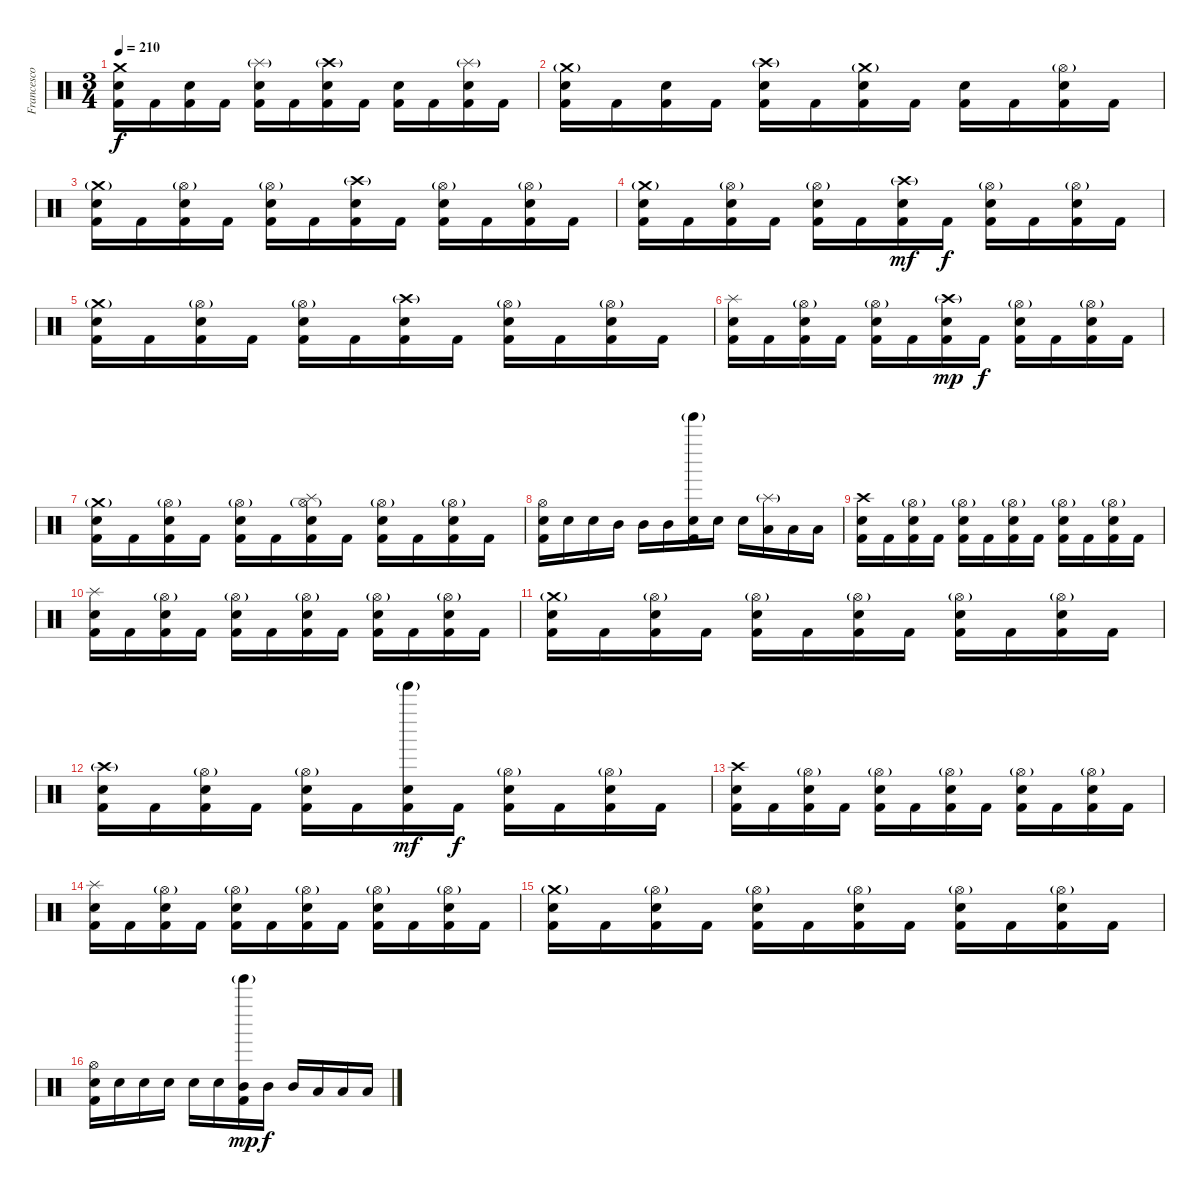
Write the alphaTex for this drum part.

\track ("Francesco Ferrini" "Francesco ") {instrument percussion}
\staff {score}
\articulation defaults
\ts (3 4)
\tempo 210
\clef neutral
\ks c
("Crash medium (hit)" "Electric Snare (hit)" "Kick (hit) 2").16{dy f} "Kick (hit) 2".16 ("Electric Snare (hit)" "Kick (hit) 2").16 "Kick (hit) 2".16 ("Splash (hit)"{g} "Electric Snare (hit)" "Kick (hit) 2").16 "Kick (hit) 2".16 ("Crash high (hit)"{g} "Electric Snare (hit)" "Kick (hit) 2").16 "Kick (hit) 2".16 ("Electric Snare (hit)" "Kick (hit) 2").16 "Kick (hit) 2".16 ("Splash (hit)"{g} "Electric Snare (hit)" "Kick (hit) 2").16 "Kick (hit) 2".16 |
("Crash medium (hit)"{g} "Electric Snare (hit)" "Kick (hit) 2").16 "Kick (hit) 2".16 ("Electric Snare (hit)" "Kick (hit) 2").16 "Kick (hit) 2".16 ("Crash high (hit)"{g} "Electric Snare (hit)" "Kick (hit) 2").16 "Kick (hit) 2".16 ("Crash medium (hit)"{g} "Electric Snare (hit)" "Kick (hit) 2").16 "Kick (hit) 2".16 ("Electric Snare (hit)" "Kick (hit) 2").16 "Kick (hit) 2".16 ("Hi-Hat (open)"{g} "Electric Snare (hit)" "Kick (hit) 2").16 "Kick (hit) 2".16 |
("Crash medium (hit)"{g} "Electric Snare (hit)" "Kick (hit) 2").16 "Kick (hit) 2".16 ("Hi-Hat (open)"{g} "Electric Snare (hit)" "Kick (hit) 2").16 "Kick (hit) 2".16 ("Hi-Hat (open)"{g} "Electric Snare (hit)" "Kick (hit) 2").16 "Kick (hit) 2".16 ("Crash high (hit)"{g} "Electric Snare (hit)" "Kick (hit) 2").16 "Kick (hit) 2".16 ("Hi-Hat (open)"{g} "Electric Snare (hit)" "Kick (hit) 2").16 "Kick (hit) 2".16 ("Hi-Hat (open)"{g} "Electric Snare (hit)" "Kick (hit) 2").16 "Kick (hit) 2".16 |
("Crash medium (hit)"{g} "Electric Snare (hit)" "Kick (hit) 2").16 "Kick (hit) 2".16 ("Hi-Hat (open)"{g} "Electric Snare (hit)" "Kick (hit) 2").16 "Kick (hit) 2".16 ("Hi-Hat (open)"{g} "Electric Snare (hit)" "Kick (hit) 2").16 "Kick (hit) 2".16 ("Crash high (hit)"{g} "Electric Snare (hit)" "Kick (hit) 2").16{dy mf} "Kick (hit) 2".16{dy f} ("Hi-Hat (open)"{g} "Electric Snare (hit)" "Kick (hit) 2").16 "Kick (hit) 2".16 ("Hi-Hat (open)"{g} "Electric Snare (hit)" "Kick (hit) 2").16 "Kick (hit) 2".16 |
("Crash medium (hit)"{g} "Electric Snare (hit)" "Kick (hit) 2").16 "Kick (hit) 2".16 ("Hi-Hat (open)"{g} "Electric Snare (hit)" "Kick (hit) 2").16 "Kick (hit) 2".16 ("Hi-Hat (open)"{g} "Electric Snare (hit)" "Kick (hit) 2").16 "Kick (hit) 2".16 ("Crash high (hit)"{g} "Electric Snare (hit)" "Kick (hit) 2").16 "Kick (hit) 2".16 ("Hi-Hat (open)"{g} "Electric Snare (hit)" "Kick (hit) 2").16 "Kick (hit) 2".16 ("Hi-Hat (open)"{g} "Electric Snare (hit)" "Kick (hit) 2").16 "Kick (hit) 2".16 |
("Splash (hit)" "Electric Snare (hit)" "Kick (hit) 2").16 "Kick (hit) 2".16 ("Hi-Hat (open)"{g} "Electric Snare (hit)" "Kick (hit) 2").16 "Kick (hit) 2".16 ("Hi-Hat (open)"{g} "Electric Snare (hit)" "Kick (hit) 2").16 "Kick (hit) 2".16 ("Crash high (hit)"{g} "Electric Snare (hit)" "Kick (hit) 2").16{dy mp} "Kick (hit) 2".16{dy f} ("Hi-Hat (open)"{g} "Electric Snare (hit)" "Kick (hit) 2").16 "Kick (hit) 2".16 ("Hi-Hat (open)"{g} "Electric Snare (hit)" "Kick (hit) 2").16 "Kick (hit) 2".16 |
("Crash medium (hit)"{g} "Electric Snare (hit)" "Kick (hit) 2").16 "Kick (hit) 2".16 ("Hi-Hat (open)"{g} "Electric Snare (hit)" "Kick (hit) 2").16 "Kick (hit) 2".16 ("Hi-Hat (open)"{g} "Electric Snare (hit)" "Kick (hit) 2").16 "Kick (hit) 2".16 ("Splash (hit)" "Hi-Hat (open)"{g} "Electric Snare (hit)" "Kick (hit) 2").16 "Kick (hit) 2".16 ("Hi-Hat (open)"{g} "Electric Snare (hit)" "Kick (hit) 2").16 "Kick (hit) 2".16 ("Hi-Hat (open)"{g} "Electric Snare (hit)" "Kick (hit) 2").16 "Kick (hit) 2".16 |
("Hi-Hat (open)" "Electric Snare (hit)" "Kick (hit) 2").16 "Electric Snare (hit)".16 "Electric Snare (hit)".16 "Mid Tom (hit)".16 "Mid Tom (hit)".16 "Mid Tom (hit)".16 ("Tinkle Bell (hit)"{g} "Electric Snare (hit)" "Kick (hit) 2").16 "Electric Snare (hit)".16 "Electric Snare (hit)".16 ("Splash (hit)"{g} "Low Tom (hit)").16 "Low Tom (hit)".16 "Low Tom (hit)".16 |
("Crash high (hit)" "Electric Snare (hit)" "Kick (hit) 2").16 "Kick (hit) 2".16 ("Hi-Hat (open)"{g} "Electric Snare (hit)" "Kick (hit) 2").16 "Kick (hit) 2".16 ("Hi-Hat (open)"{g} "Electric Snare (hit)" "Kick (hit) 2").16 "Kick (hit) 2".16 ("Hi-Hat (open)"{g} "Electric Snare (hit)" "Kick (hit) 2").16 "Kick (hit) 2".16 ("Hi-Hat (open)"{g} "Electric Snare (hit)" "Kick (hit) 2").16 "Kick (hit) 2".16 ("Hi-Hat (open)"{g} "Electric Snare (hit)" "Kick (hit) 2").16 "Kick (hit) 2".16 |
("Splash (hit)" "Electric Snare (hit)" "Kick (hit) 2").16 "Kick (hit) 2".16 ("Hi-Hat (open)"{g} "Electric Snare (hit)" "Kick (hit) 2").16 "Kick (hit) 2".16 ("Hi-Hat (open)"{g} "Electric Snare (hit)" "Kick (hit) 2").16 "Kick (hit) 2".16 ("Hi-Hat (open)"{g} "Electric Snare (hit)" "Kick (hit) 2").16 "Kick (hit) 2".16 ("Hi-Hat (open)"{g} "Electric Snare (hit)" "Kick (hit) 2").16 "Kick (hit) 2".16 ("Hi-Hat (open)"{g} "Electric Snare (hit)" "Kick (hit) 2").16 "Kick (hit) 2".16 |
("Crash medium (hit)"{g} "Electric Snare (hit)" "Kick (hit) 2").16 "Kick (hit) 2".16 ("Hi-Hat (open)"{g} "Electric Snare (hit)" "Kick (hit) 2").16 "Kick (hit) 2".16 ("Hi-Hat (open)"{g} "Electric Snare (hit)" "Kick (hit) 2").16 "Kick (hit) 2".16 ("Hi-Hat (open)"{g} "Electric Snare (hit)" "Kick (hit) 2").16 "Kick (hit) 2".16 ("Hi-Hat (open)"{g} "Electric Snare (hit)" "Kick (hit) 2").16 "Kick (hit) 2".16 ("Hi-Hat (open)"{g} "Electric Snare (hit)" "Kick (hit) 2").16 "Kick (hit) 2".16 |
("Crash high (hit)"{g} "Electric Snare (hit)" "Kick (hit) 2").16 "Kick (hit) 2".16 ("Hi-Hat (open)"{g} "Electric Snare (hit)" "Kick (hit) 2").16 "Kick (hit) 2".16 ("Hi-Hat (open)"{g} "Electric Snare (hit)" "Kick (hit) 2").16 "Kick (hit) 2".16 ("Tinkle Bell (hit)"{g} "Electric Snare (hit)" "Kick (hit) 2").16{dy mf} "Kick (hit) 2".16{dy f} ("Hi-Hat (open)"{g} "Electric Snare (hit)" "Kick (hit) 2").16 "Kick (hit) 2".16 ("Hi-Hat (open)"{g} "Electric Snare (hit)" "Kick (hit) 2").16 "Kick (hit) 2".16 |
("Crash high (hit)" "Electric Snare (hit)" "Kick (hit) 2").16 "Kick (hit) 2".16 ("Hi-Hat (open)"{g} "Electric Snare (hit)" "Kick (hit) 2").16 "Kick (hit) 2".16 ("Hi-Hat (open)"{g} "Electric Snare (hit)" "Kick (hit) 2").16 "Kick (hit) 2".16 ("Hi-Hat (open)"{g} "Electric Snare (hit)" "Kick (hit) 2").16 "Kick (hit) 2".16 ("Hi-Hat (open)"{g} "Electric Snare (hit)" "Kick (hit) 2").16 "Kick (hit) 2".16 ("Hi-Hat (open)"{g} "Electric Snare (hit)" "Kick (hit) 2").16 "Kick (hit) 2".16 |
("Splash (hit)" "Electric Snare (hit)" "Kick (hit) 2").16 "Kick (hit) 2".16 ("Hi-Hat (open)"{g} "Electric Snare (hit)" "Kick (hit) 2").16 "Kick (hit) 2".16 ("Hi-Hat (open)"{g} "Electric Snare (hit)" "Kick (hit) 2").16 "Kick (hit) 2".16 ("Hi-Hat (open)"{g} "Electric Snare (hit)" "Kick (hit) 2").16 "Kick (hit) 2".16 ("Hi-Hat (open)"{g} "Electric Snare (hit)" "Kick (hit) 2").16 "Kick (hit) 2".16 ("Hi-Hat (open)"{g} "Electric Snare (hit)" "Kick (hit) 2").16 "Kick (hit) 2".16 |
("Crash medium (hit)"{g} "Electric Snare (hit)" "Kick (hit) 2").16 "Kick (hit) 2".16 ("Hi-Hat (open)"{g} "Electric Snare (hit)" "Kick (hit) 2").16 "Kick (hit) 2".16 ("Hi-Hat (open)"{g} "Electric Snare (hit)" "Kick (hit) 2").16 "Kick (hit) 2".16 ("Hi-Hat (open)"{g} "Electric Snare (hit)" "Kick (hit) 2").16 "Kick (hit) 2".16 ("Hi-Hat (open)"{g} "Electric Snare (hit)" "Kick (hit) 2").16 "Kick (hit) 2".16 ("Hi-Hat (open)"{g} "Electric Snare (hit)" "Kick (hit) 2").16 "Kick (hit) 2".16 |
("Hi-Hat (open)" "Electric Snare (hit)" "Kick (hit) 2").16 "Electric Snare (hit)".16 "Electric Snare (hit)".16 "Electric Snare (hit)".16 "Electric Snare (hit)".16 "Electric Snare (hit)".16 ("Tinkle Bell (hit)"{g} "Mid Tom (hit)" "Kick (hit) 2").16{dy mp} "Mid Tom (hit)".16{dy f} "Mid Tom (hit)".16 "Low Tom (hit)".16 "Low Tom (hit)".16 "Low Tom (hit)".16
